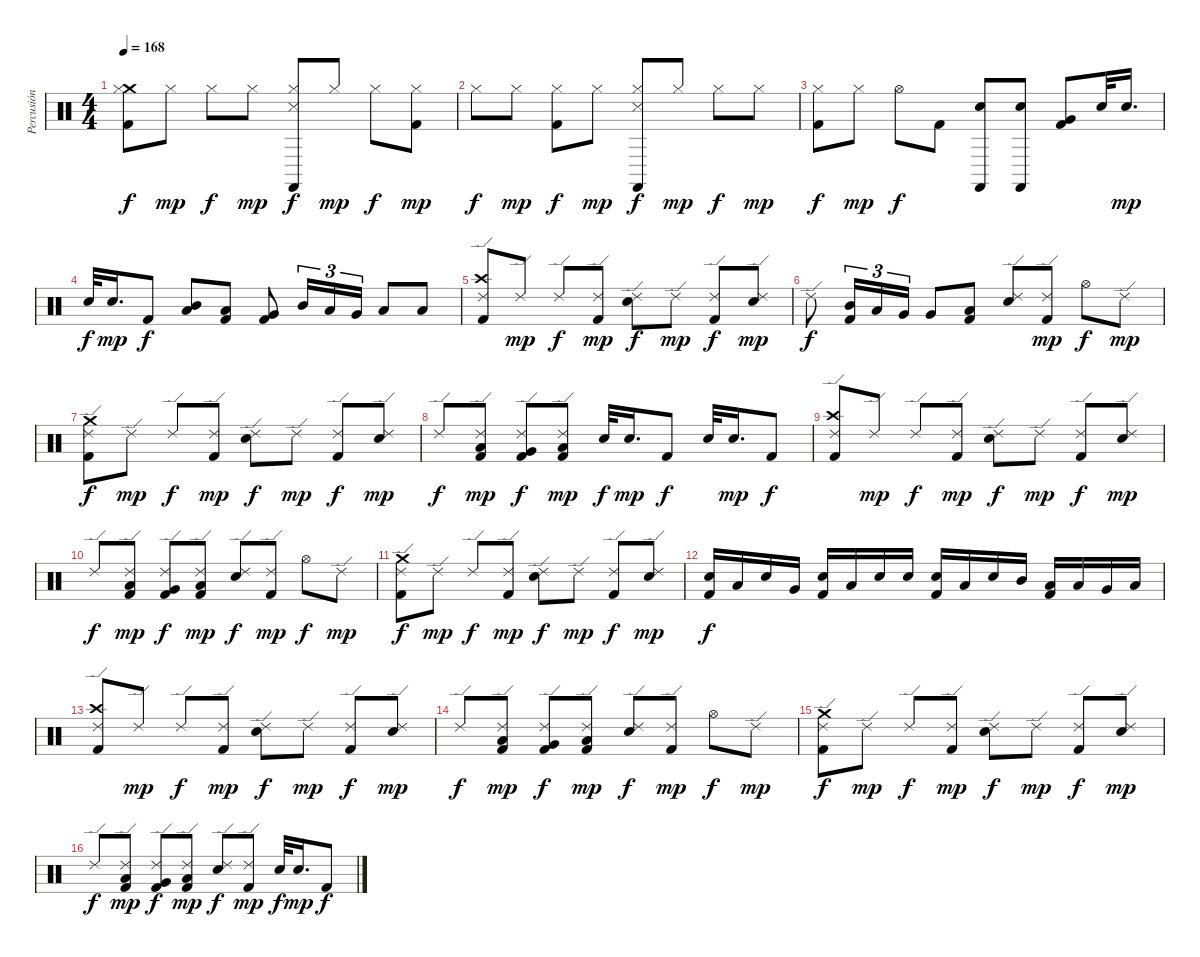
\track ("Percusión" "Percusión") {instrument percussion}
\staff {score}
\articulation defaults
\ts (4 4)
\tempo 168
\clef neutral
\ks c
("Crash medium (hit)" "Hi-Hat (closed)" "Kick (hit) 2").8{dy f} "Hi-Hat (closed)".8{dy mp} "Hi-Hat (closed)".8{dy f} "Hi-Hat (closed)".8{dy mp} ("Hi-Hat (closed)" "Snare (side stick) 3" "Castanets (hit)").8{dy f} "Hi-Hat (closed)".8{dy mp} "Hi-Hat (closed)".8{dy f} ("Hi-Hat (closed)" "Kick (hit) 2").8{dy mp} |
"Hi-Hat (closed)".8{dy f} "Hi-Hat (closed)".8{dy mp} ("Hi-Hat (closed)" "Kick (hit) 2").8{dy f} "Hi-Hat (closed)".8{dy mp} ("Hi-Hat (closed)" "Snare (side stick) 3" "Castanets (hit)").8{dy f} "Hi-Hat (closed)".8{dy mp} "Hi-Hat (closed)".8{dy f} "Hi-Hat (closed)".8{dy mp} |
("Hi-Hat (closed)" "Kick (hit) 2").8{dy f} "Hi-Hat (closed)".8{dy mp} "Hi-Hat (open)".8{dy f} "Kick (hit) 2".8 ("Electric Snare (hit)" "Castanets (hit)").8 ("Electric Snare (hit)" "Castanets (hit)").8 ("Very Low Tom (hit)" "Kick (hit) 2").8 "Electric Snare (hit)".32 "Electric Snare (hit)".16{d dy mp} |
"Electric Snare (hit)".32{dy f} "Electric Snare (hit)".16{d dy mp} "Kick (hit) 2".8{dy f} ("Mid Tom (hit)" "Low Floor Tom (hit)").8 ("Low Tom (hit)" "Kick (hit) 2").8 ("Very Low Tom (hit)" "Kick (hit) 2").8 "Mid Tom (hit)".16{tu (3 2)} "Low Tom (hit)".16{tu (3 2)} "Very Low Tom (hit)".16{tu (3 2)} "Low Floor Tom (hit)".8 "Low Floor Tom (hit)".8 |
("Crash high (hit)" "Ride (edge) 2" "Kick (hit) 2").8 "Ride (edge) 2".8{dy mp} "Ride (edge) 2".8{dy f} ("Ride (edge) 2" "Kick (hit) 2").8{dy mp} ("Ride (edge) 2" "Electric Snare (hit)").8{dy f} "Ride (edge) 2".8{dy mp} ("Ride (edge) 2" "Kick (hit) 2").8{dy f} ("Ride (edge) 2" "Electric Snare (hit)").8{dy mp} |
"Ride (edge) 2".8{dy f} ("Mid Tom (hit)" "Kick (hit) 2").16{tu (3 2)} "Low Tom (hit)".16{tu (3 2)} "Very Low Tom (hit)".16{tu (3 2)} "Very Low Tom (hit)".8 ("Low Floor Tom (hit)" "Kick (hit) 2").8 ("Ride (edge) 2" "Electric Snare (hit)").8 ("Ride (edge) 2" "Kick (hit) 2").8{dy mp} "Hi-Hat (open)".8{dy f} "Ride (edge) 2".8{dy mp} |
("Crash medium (hit)" "Ride (edge) 2" "Kick (hit) 2").8{dy f} "Ride (edge) 2".8{dy mp} "Ride (edge) 2".8{dy f} ("Ride (edge) 2" "Kick (hit) 2").8{dy mp} ("Ride (edge) 2" "Electric Snare (hit)").8{dy f} "Ride (edge) 2".8{dy mp} ("Ride (edge) 2" "Kick (hit) 2").8{dy f} ("Ride (edge) 2" "Electric Snare (hit)").8{dy mp} |
"Ride (edge) 2".8{dy f} ("Ride (edge) 2" "Low Tom (hit)" "Kick (hit) 2").8{dy mp} ("Ride (edge) 2" "Very Low Tom (hit)" "Kick (hit) 2").8{dy f} ("Ride (edge) 2" "Low Floor Tom (hit)" "Kick (hit) 2").8{dy mp} "Electric Snare (hit)".32{dy f} "Electric Snare (hit)".16{d dy mp} "Kick (hit) 2".8{dy f} "Electric Snare (hit)".32 "Electric Snare (hit)".16{d dy mp} "Kick (hit) 2".8{dy f} |
("Crash high (hit)" "Ride (edge) 2" "Kick (hit) 2").8 "Ride (edge) 2".8{dy mp} "Ride (edge) 2".8{dy f} ("Ride (edge) 2" "Kick (hit) 2").8{dy mp} ("Ride (edge) 2" "Electric Snare (hit)").8{dy f} "Ride (edge) 2".8{dy mp} ("Ride (edge) 2" "Kick (hit) 2").8{dy f} ("Ride (edge) 2" "Electric Snare (hit)").8{dy mp} |
"Ride (edge) 2".8{dy f} ("Ride (edge) 2" "Low Tom (hit)" "Kick (hit) 2").8{dy mp} ("Ride (edge) 2" "Very Low Tom (hit)" "Kick (hit) 2").8{dy f} ("Ride (edge) 2" "Low Floor Tom (hit)" "Kick (hit) 2").8{dy mp} ("Ride (edge) 2" "Electric Snare (hit)").8{dy f} ("Ride (edge) 2" "Kick (hit) 2").8{dy mp} "Hi-Hat (open)".8{dy f} "Ride (edge) 2".8{dy mp} |
("Crash medium (hit)" "Ride (edge) 2" "Kick (hit) 2").8{dy f} "Ride (edge) 2".8{dy mp} "Ride (edge) 2".8{dy f} ("Ride (edge) 2" "Kick (hit) 2").8{dy mp} ("Ride (edge) 2" "Electric Snare (hit)").8{dy f} "Ride (edge) 2".8{dy mp} ("Ride (edge) 2" "Kick (hit) 2").8{dy f} ("Ride (edge) 2" "Electric Snare (hit)").8{dy mp} |
("Electric Snare (hit)" "Kick (hit) 2").16{dy f} "Low Tom (hit)".16 "Electric Snare (hit)".16 "Very Low Tom (hit)".16 ("Electric Snare (hit)" "Kick (hit) 2").16 "Low Floor Tom (hit)".16 "Electric Snare (hit)".16 "Electric Snare (hit)".16 ("Electric Snare (hit)" "Kick (hit) 2").16 "Low Tom (hit)".16 "Electric Snare (hit)".16 "Mid Tom (hit)".16 ("Low Tom (hit)" "Kick (hit) 2").16 "Low Tom (hit)".16 "Very Low Tom (hit)".16 "Low Floor Tom (hit)".16 |
("Crash high (hit)" "Ride (edge) 2" "Kick (hit) 2").8 "Ride (edge) 2".8{dy mp} "Ride (edge) 2".8{dy f} ("Ride (edge) 2" "Kick (hit) 2").8{dy mp} ("Ride (edge) 2" "Electric Snare (hit)").8{dy f} "Ride (edge) 2".8{dy mp} ("Ride (edge) 2" "Kick (hit) 2").8{dy f} ("Ride (edge) 2" "Electric Snare (hit)").8{dy mp} |
"Ride (edge) 2".8{dy f} ("Ride (edge) 2" "Low Tom (hit)" "Kick (hit) 2").8{dy mp} ("Ride (edge) 2" "Very Low Tom (hit)" "Kick (hit) 2").8{dy f} ("Ride (edge) 2" "Low Floor Tom (hit)" "Kick (hit) 2").8{dy mp} ("Ride (edge) 2" "Electric Snare (hit)").8{dy f} ("Ride (edge) 2" "Kick (hit) 2").8{dy mp} "Hi-Hat (open)".8{dy f} "Ride (edge) 2".8{dy mp} |
("Crash medium (hit)" "Ride (edge) 2" "Kick (hit) 2").8{dy f} "Ride (edge) 2".8{dy mp} "Ride (edge) 2".8{dy f} ("Ride (edge) 2" "Kick (hit) 2").8{dy mp} ("Ride (edge) 2" "Electric Snare (hit)").8{dy f} "Ride (edge) 2".8{dy mp} ("Ride (edge) 2" "Kick (hit) 2").8{dy f} ("Ride (edge) 2" "Electric Snare (hit)").8{dy mp} |
"Ride (edge) 2".8{dy f} ("Ride (edge) 2" "Low Tom (hit)" "Kick (hit) 2").8{dy mp} ("Ride (edge) 2" "Very Low Tom (hit)" "Kick (hit) 2").8{dy f} ("Ride (edge) 2" "Low Floor Tom (hit)" "Kick (hit) 2").8{dy mp} ("Ride (edge) 2" "Electric Snare (hit)").8{dy f} ("Ride (edge) 2" "Kick (hit) 2").8{dy mp} "Electric Snare (hit)".32{dy f} "Electric Snare (hit)".16{d dy mp} "Kick (hit) 2".8{dy f}
